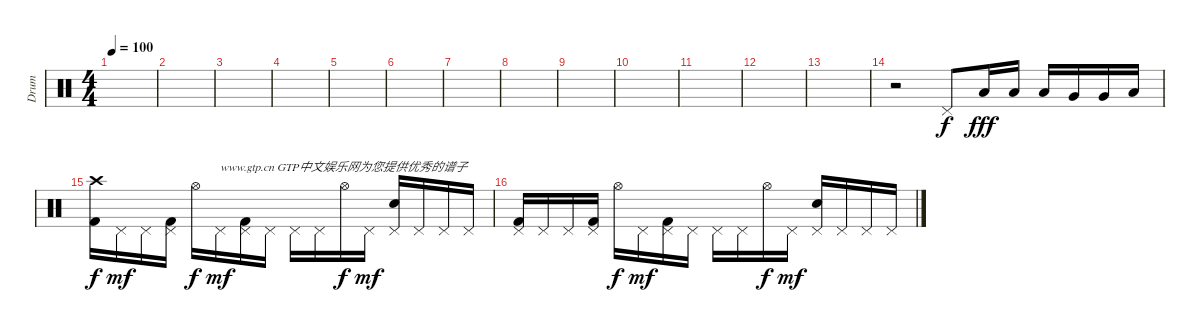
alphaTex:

\track ("Drum" "Drum") {instrument percussion}
\staff {score}
\articulation defaults
\ts (4 4)
\tempo 100
\clef neutral
\ks c
|
|
|
|
|
|
|
|
|
|
|
|
|
r.2 "Pedal Hi-Hat (hit)".8 "Low Tom (hit)".16{dy fff} "Low Tom (hit)".16 "Low Tom (hit)".16 "Very Low Tom (hit)".16 "Very Low Tom (hit)".16 "Low Floor Tom (hit)".16 |
("Crash high (hit)" "Kick (hit) 2").16{dy f} "Pedal Hi-Hat (hit)".16{dy mf} "Pedal Hi-Hat (hit)".16 ("Pedal Hi-Hat (hit)" "Kick (hit) 2").16 "Hi-Hat (open)".16{dy f} "Pedal Hi-Hat (hit)".16{txt "www.gtp.cn GTP中文娱乐网为您提供优秀的谱子" dy mf} ("Pedal Hi-Hat (hit)" "Kick (hit) 2").16 "Pedal Hi-Hat (hit)".16 "Pedal Hi-Hat (hit)".16 "Pedal Hi-Hat (hit)".16 "Hi-Hat (open)".16{dy f} "Pedal Hi-Hat (hit)".16{dy mf} ("Pedal Hi-Hat (hit)" "Electric Snare (hit)").16 "Pedal Hi-Hat (hit)".16 "Pedal Hi-Hat (hit)".16 "Pedal Hi-Hat (hit)".16 |
("Pedal Hi-Hat (hit)" "Kick (hit) 2").16 "Pedal Hi-Hat (hit)".16 "Pedal Hi-Hat (hit)".16 ("Pedal Hi-Hat (hit)" "Kick (hit) 2").16 "Hi-Hat (open)".16{dy f} "Pedal Hi-Hat (hit)".16{dy mf} ("Pedal Hi-Hat (hit)" "Kick (hit) 2").16 "Pedal Hi-Hat (hit)".16 "Pedal Hi-Hat (hit)".16 "Pedal Hi-Hat (hit)".16 "Hi-Hat (open)".16{dy f} "Pedal Hi-Hat (hit)".16{dy mf} ("Pedal Hi-Hat (hit)" "Electric Snare (hit)").16 "Pedal Hi-Hat (hit)".16 "Pedal Hi-Hat (hit)".16 "Pedal Hi-Hat (hit)".16
